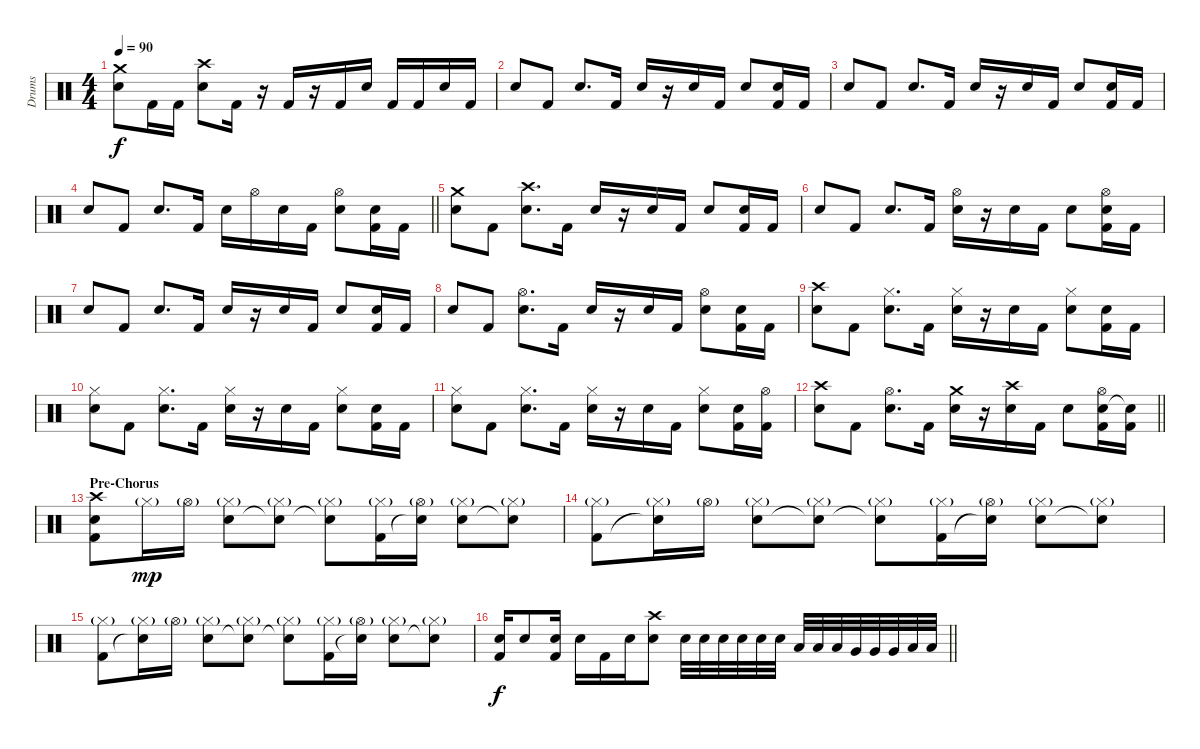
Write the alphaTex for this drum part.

\track ("Drums" "Drums") {instrument percussion}
\staff {score}
\articulation defaults
\ts (4 4)
\tempo 90
\clef neutral
\ks c
("Electric Snare (hit)" "Crash medium (hit)").8{dy f} "Kick (hit) 2".16 "Kick (hit) 2".16 ("Electric Snare (hit)" "Crash high (hit)").8 "Kick (hit) 2".16 r.16 "Kick (hit) 2".16 r.16 "Kick (hit) 2".16 "Electric Snare (hit)".16 "Kick (hit) 2".16 "Kick (hit) 2".16 "Electric Snare (hit)".16 "Kick (hit) 2".16 |
"Electric Snare (hit)".8 "Kick (hit) 2".8 "Electric Snare (hit)".8{d} "Kick (hit) 2".16 "Electric Snare (hit)".16 r.16 "Electric Snare (hit)".16 "Kick (hit) 2".16 "Electric Snare (hit)".8 ("Kick (hit) 2" "Electric Snare (hit)").16 "Kick (hit) 2".16 |
"Electric Snare (hit)".8 "Kick (hit) 2".8 "Electric Snare (hit)".8{d} "Kick (hit) 2".16 "Electric Snare (hit)".16 r.16 "Electric Snare (hit)".16 "Kick (hit) 2".16 "Electric Snare (hit)".8 ("Kick (hit) 2" "Electric Snare (hit)").16 "Kick (hit) 2".16 |
\barLineRight lightlight "Electric Snare (hit)".8 "Kick (hit) 2".8 "Electric Snare (hit)".8{d} "Kick (hit) 2".16 "Electric Snare (hit)".16 "Hi-Hat (open)".16 "Electric Snare (hit)".16 "Kick (hit) 2".16
("Electric Snare (hit)" "Hi-Hat (open)").8 ("Kick (hit) 2" "Electric Snare (hit)").16 "Kick (hit) 2".16 |
("Electric Snare (hit)" "Crash medium (hit)").8 "Kick (hit) 2".8 ("Electric Snare (hit)" "Crash high (hit)").8{d} "Kick (hit) 2".16 "Electric Snare (hit)".16 r.16 "Electric Snare (hit)".16 "Kick (hit) 2".16 "Electric Snare (hit)".8 ("Kick (hit) 2" "Electric Snare (hit)").16 "Kick (hit) 2".16 |
"Electric Snare (hit)".8 "Kick (hit) 2".8 "Electric Snare (hit)".8{d} "Kick (hit) 2".16 ("Electric Snare (hit)" "Hi-Hat (open)").16 r.16 "Electric Snare (hit)".16 "Kick (hit) 2".16 "Electric Snare (hit)".8 ("Kick (hit) 2" "Electric Snare (hit)" "Hi-Hat (open)").16 "Kick (hit) 2".16 |
"Electric Snare (hit)".8 "Kick (hit) 2".8 "Electric Snare (hit)".8{d} "Kick (hit) 2".16 "Electric Snare (hit)".16 r.16 "Electric Snare (hit)".16 "Kick (hit) 2".16 "Electric Snare (hit)".8 ("Kick (hit) 2" "Electric Snare (hit)").16 "Kick (hit) 2".16 |
"Electric Snare (hit)".8 "Kick (hit) 2".8 ("Electric Snare (hit)" "Hi-Hat (open)").8{d} "Kick (hit) 2".16 "Electric Snare (hit)".16 r.16 "Electric Snare (hit)".16 "Kick (hit) 2".16 ("Electric Snare (hit)" "Hi-Hat (open)").8 ("Kick (hit) 2" "Electric Snare (hit)").16 "Kick (hit) 2".16 |
("Electric Snare (hit)" "Crash high (hit)").8 "Kick (hit) 2".8 ("Electric Snare (hit)" "Hi-Hat (closed)").8{d} "Kick (hit) 2".16 ("Electric Snare (hit)" "Hi-Hat (closed)").16 r.16 "Electric Snare (hit)".16 "Kick (hit) 2".16 ("Electric Snare (hit)" "Hi-Hat (closed)").8 ("Kick (hit) 2" "Electric Snare (hit)").16 "Kick (hit) 2".16 |
("Electric Snare (hit)" "Hi-Hat (closed)").8 "Kick (hit) 2".8 ("Electric Snare (hit)" "Hi-Hat (closed)").8{d} "Kick (hit) 2".16 ("Electric Snare (hit)" "Hi-Hat (closed)").16 r.16 "Electric Snare (hit)".16 "Kick (hit) 2".16 ("Electric Snare (hit)" "Hi-Hat (closed)").8 ("Kick (hit) 2" "Electric Snare (hit)").16 "Kick (hit) 2".16 |
("Electric Snare (hit)" "Hi-Hat (closed)").8 "Kick (hit) 2".8 ("Electric Snare (hit)" "Hi-Hat (closed)").8{d} "Kick (hit) 2".16 ("Electric Snare (hit)" "Hi-Hat (closed)").16 r.16 "Electric Snare (hit)".16 "Kick (hit) 2".16 ("Electric Snare (hit)" "Hi-Hat (closed)").8 ("Kick (hit) 2" "Electric Snare (hit)").16 ("Kick (hit) 2" "Hi-Hat (open)").16 |
\barLineRight lightlight
("Electric Snare (hit)" "Crash high (hit)").8 "Kick (hit) 2".8 ("Electric Snare (hit)" "Hi-Hat (open)").8{d} "Kick (hit) 2".16 ("Electric Snare (hit)" "Crash medium (hit)").16 r.16 ("Electric Snare (hit)" "Crash high (hit)").16 "Kick (hit) 2".16 "Electric Snare (hit)".8 ("Kick (hit) 2" "Electric Snare (hit)" "Hi-Hat (open)").16 ("Kick (hit) 2" "Snare (hit)"{t}).16 |
\section ("" "Pre-Chorus")
("Kick (hit) 2" "Electric Snare (hit)" "Crash high (hit)").8 "Hi-Hat (closed)"{g}.16{dy mp} "Hi-Hat (open)"{g}.16 ("Snare (hit) 2" "Hi-Hat (closed)"{g}).8 ("Snare (hit)"{t} "Hi-Hat (closed)"{g}).8 ("Snare (hit)"{t} "Hi-Hat (closed)"{g}).8 ("Kick (hit) 2" "Hi-Hat (closed)"{g}).16 ("Snare (hit)"{t} "Hi-Hat (open)"{g}).16 ("Snare (hit) 2" "Hi-Hat (closed)"{g}).8 ("Snare (hit)"{t} "Hi-Hat (closed)"{g}).8 |
("Kick (hit) 2" "Hi-Hat (closed)"{g}).8 ("Snare (hit)"{t} "Hi-Hat (closed)"{g}).16 "Hi-Hat (open)"{g}.16 ("Snare (hit) 2" "Hi-Hat (closed)"{g}).8 ("Snare (hit)"{t} "Hi-Hat (closed)"{g}).8 ("Snare (hit)"{t} "Hi-Hat (closed)"{g}).8 ("Kick (hit) 2" "Hi-Hat (closed)"{g}).16 ("Snare (hit)"{t} "Hi-Hat (open)"{g}).16 ("Snare (hit) 2" "Hi-Hat (closed)"{g}).8 ("Snare (hit)"{t} "Hi-Hat (closed)"{g}).8 |
("Kick (hit) 2" "Hi-Hat (closed)"{g}).8 ("Snare (hit)"{t} "Hi-Hat (closed)"{g}).16 "Hi-Hat (open)"{g}.16 ("Snare (hit) 2" "Hi-Hat (closed)"{g}).8 ("Snare (hit)"{t} "Hi-Hat (closed)"{g}).8 ("Snare (hit)"{t} "Hi-Hat (closed)"{g}).8 ("Kick (hit) 2" "Hi-Hat (closed)"{g}).16 ("Snare (hit)"{t} "Hi-Hat (open)"{g}).16 ("Snare (hit) 2" "Hi-Hat (closed)"{g}).8 ("Snare (hit)"{t} "Hi-Hat (closed)"{g}).8 |
\barLineRight lightlight
("Kick (hit) 2" "Snare (hit) 2").16{dy f} "Snare (hit) 2".8 ("Kick (hit) 2" "Snare (hit) 2").16 "Snare (hit) 2".16 "Kick (hit) 2".16 "Snare (hit) 2".16 ("Snare (hit) 2" "Crash high (hit)").8 "Snare (hit) 2".32 "Snare (hit) 2".32 "Snare (hit) 2".32 "Snare (hit) 2".32 "Snare (hit) 2".32 "Snare (hit) 2".32 "Low Tom (hit)".32 "Low Tom (hit)".32 "Low Tom (hit)".32 "Very Low Tom (hit)".32 "Very Low Tom (hit)".32 "Very Low Tom (hit)".32 "Low Floor Tom (hit)".32 "Low Floor Tom (hit)".32
